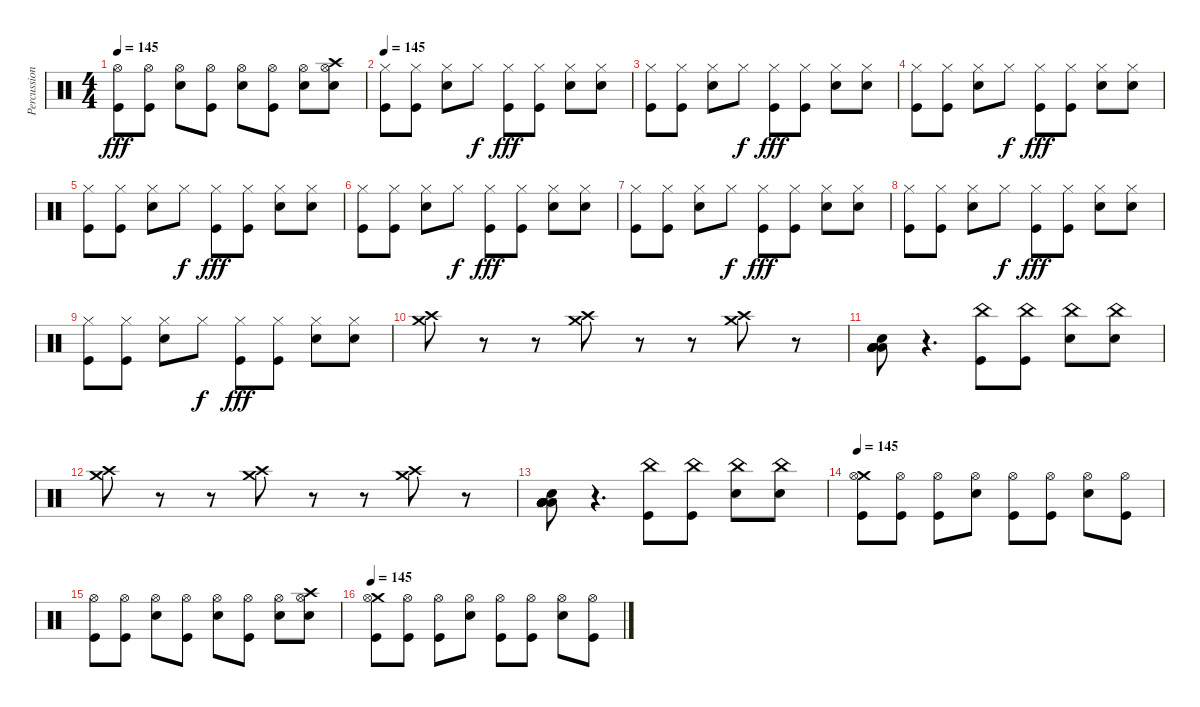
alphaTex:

\track ("Percussion" "Percussion") {instrument percussion}
\staff {score}
\articulation defaults
\ts (4 4)
\tempo 145
\clef neutral
\ks c
("Kick (hit)" "Hi-Hat (open)").8{dy fff} ("Kick (hit)" "Hi-Hat (open)").8 ("Snare (hit) 2" "Hi-Hat (open)").8 ("Kick (hit)" "Hi-Hat (open)").8 ("Snare (hit) 2" "Hi-Hat (open)").8 ("Kick (hit)" "Hi-Hat (open)").8 ("Snare (hit) 2" "Hi-Hat (open)").8 ("Crash high (hit)" "Snare (hit) 2" "Hi-Hat (open)").8 |
\tempo 145
("Kick (hit)" "Hi-Hat (closed)").8 ("Kick (hit)" "Hi-Hat (closed)").8 ("Snare (hit) 2" "Hi-Hat (closed)").8 "Hi-Hat (closed)".8{dy f} ("Kick (hit)" "Hi-Hat (closed)").8{dy fff} ("Kick (hit)" "Hi-Hat (closed)").8 ("Snare (hit) 2" "Hi-Hat (closed)").8 ("Snare (hit) 2" "Hi-Hat (closed)").8 |
("Kick (hit)" "Hi-Hat (closed)").8 ("Kick (hit)" "Hi-Hat (closed)").8 ("Snare (hit) 2" "Hi-Hat (closed)").8 "Hi-Hat (closed)".8{dy f} ("Kick (hit)" "Hi-Hat (closed)").8{dy fff} ("Kick (hit)" "Hi-Hat (closed)").8 ("Snare (hit) 2" "Hi-Hat (closed)").8 ("Snare (hit) 2" "Hi-Hat (closed)").8 |
("Kick (hit)" "Hi-Hat (closed)").8 ("Kick (hit)" "Hi-Hat (closed)").8 ("Snare (hit) 2" "Hi-Hat (closed)").8 "Hi-Hat (closed)".8{dy f} ("Kick (hit)" "Hi-Hat (closed)").8{dy fff} ("Kick (hit)" "Hi-Hat (closed)").8 ("Snare (hit) 2" "Hi-Hat (closed)").8 ("Snare (hit) 2" "Hi-Hat (closed)").8 |
("Kick (hit)" "Hi-Hat (closed)").8 ("Kick (hit)" "Hi-Hat (closed)").8 ("Snare (hit) 2" "Hi-Hat (closed)").8 "Hi-Hat (closed)".8{dy f} ("Kick (hit)" "Hi-Hat (closed)").8{dy fff} ("Kick (hit)" "Hi-Hat (closed)").8 ("Snare (hit) 2" "Hi-Hat (closed)").8 ("Snare (hit) 2" "Hi-Hat (closed)").8 |
("Kick (hit)" "Hi-Hat (closed)").8 ("Kick (hit)" "Hi-Hat (closed)").8 ("Snare (hit) 2" "Hi-Hat (closed)").8 "Hi-Hat (closed)".8{dy f} ("Kick (hit)" "Hi-Hat (closed)").8{dy fff} ("Kick (hit)" "Hi-Hat (closed)").8 ("Snare (hit) 2" "Hi-Hat (closed)").8 ("Snare (hit) 2" "Hi-Hat (closed)").8 |
("Kick (hit)" "Hi-Hat (closed)").8 ("Kick (hit)" "Hi-Hat (closed)").8 ("Snare (hit) 2" "Hi-Hat (closed)").8 "Hi-Hat (closed)".8{dy f} ("Kick (hit)" "Hi-Hat (closed)").8{dy fff} ("Kick (hit)" "Hi-Hat (closed)").8 ("Snare (hit) 2" "Hi-Hat (closed)").8 ("Snare (hit) 2" "Hi-Hat (closed)").8 |
("Kick (hit)" "Hi-Hat (closed)").8 ("Kick (hit)" "Hi-Hat (closed)").8 ("Snare (hit) 2" "Hi-Hat (closed)").8 "Hi-Hat (closed)".8{dy f} ("Kick (hit)" "Hi-Hat (closed)").8{dy fff} ("Kick (hit)" "Hi-Hat (closed)").8 ("Snare (hit) 2" "Hi-Hat (closed)").8 ("Snare (hit) 2" "Hi-Hat (closed)").8 |
("Kick (hit)" "Hi-Hat (closed)").8 ("Kick (hit)" "Hi-Hat (closed)").8 ("Snare (hit) 2" "Hi-Hat (closed)").8 "Hi-Hat (closed)".8{dy f} ("Kick (hit)" "Hi-Hat (closed)").8{dy fff} ("Kick (hit)" "Hi-Hat (closed)").8 ("Snare (hit) 2" "Hi-Hat (closed)").8 ("Snare (hit) 2" "Hi-Hat (closed)").8 |
("Crash high (hit)" "Crash medium (hit)").8 r.8 r.8 ("Crash high (hit)" "Crash medium (hit)").8 r.8 r.8 ("Crash medium (hit)" "Crash high (hit)").8 r.8 |
("Snare (hit) 2" "Low Floor Tom (hit)" "Low Floor Tom (hit)" "Low Floor Tom (hit)" "Low Floor Tom (hit)" "Low Floor Tom (hit)").8 r.4{d} ("Kick (hit)" "China (hit)").8 ("Kick (hit)" "China (hit)").8 ("Snare (hit) 2" "China (hit)").8 ("Snare (hit) 2" "China (hit)").8 |
("Crash high (hit)" "Crash medium (hit)").8 r.8 r.8 ("Crash high (hit)" "Crash medium (hit)").8 r.8 r.8 ("Crash medium (hit)" "Crash high (hit)").8 r.8 |
("Snare (hit) 2" "Low Floor Tom (hit)" "Low Floor Tom (hit)" "Low Floor Tom (hit)" "Low Floor Tom (hit)" "Low Floor Tom (hit)").8 r.4{d} ("Kick (hit)" "China (hit)").8 ("Kick (hit)" "China (hit)").8 ("Snare (hit) 2" "China (hit)").8 ("Snare (hit) 2" "China (hit)").8 |
\tempo 145
("Crash medium (hit)" "Kick (hit)" "Hi-Hat (open)").8 ("Kick (hit)" "Hi-Hat (open)").8 ("Kick (hit)" "Hi-Hat (open)").8 ("Snare (hit) 2" "Hi-Hat (open)").8 ("Kick (hit)" "Hi-Hat (open)").8 ("Kick (hit)" "Hi-Hat (open)").8 ("Snare (hit) 2" "Hi-Hat (open)").8 ("Kick (hit)" "Hi-Hat (open)").8 |
("Kick (hit)" "Hi-Hat (open)").8 ("Kick (hit)" "Hi-Hat (open)").8 ("Snare (hit) 2" "Hi-Hat (open)").8 ("Kick (hit)" "Hi-Hat (open)").8 ("Snare (hit) 2" "Hi-Hat (open)").8 ("Kick (hit)" "Hi-Hat (open)").8 ("Snare (hit) 2" "Hi-Hat (open)").8 ("Crash high (hit)" "Snare (hit) 2" "Hi-Hat (open)").8 |
\tempo 145
("Crash medium (hit)" "Kick (hit)" "Hi-Hat (open)").8 ("Kick (hit)" "Hi-Hat (open)").8 ("Kick (hit)" "Hi-Hat (open)").8 ("Snare (hit) 2" "Hi-Hat (open)").8 ("Kick (hit)" "Hi-Hat (open)").8 ("Kick (hit)" "Hi-Hat (open)").8 ("Snare (hit) 2" "Hi-Hat (open)").8 ("Kick (hit)" "Hi-Hat (open)").8
